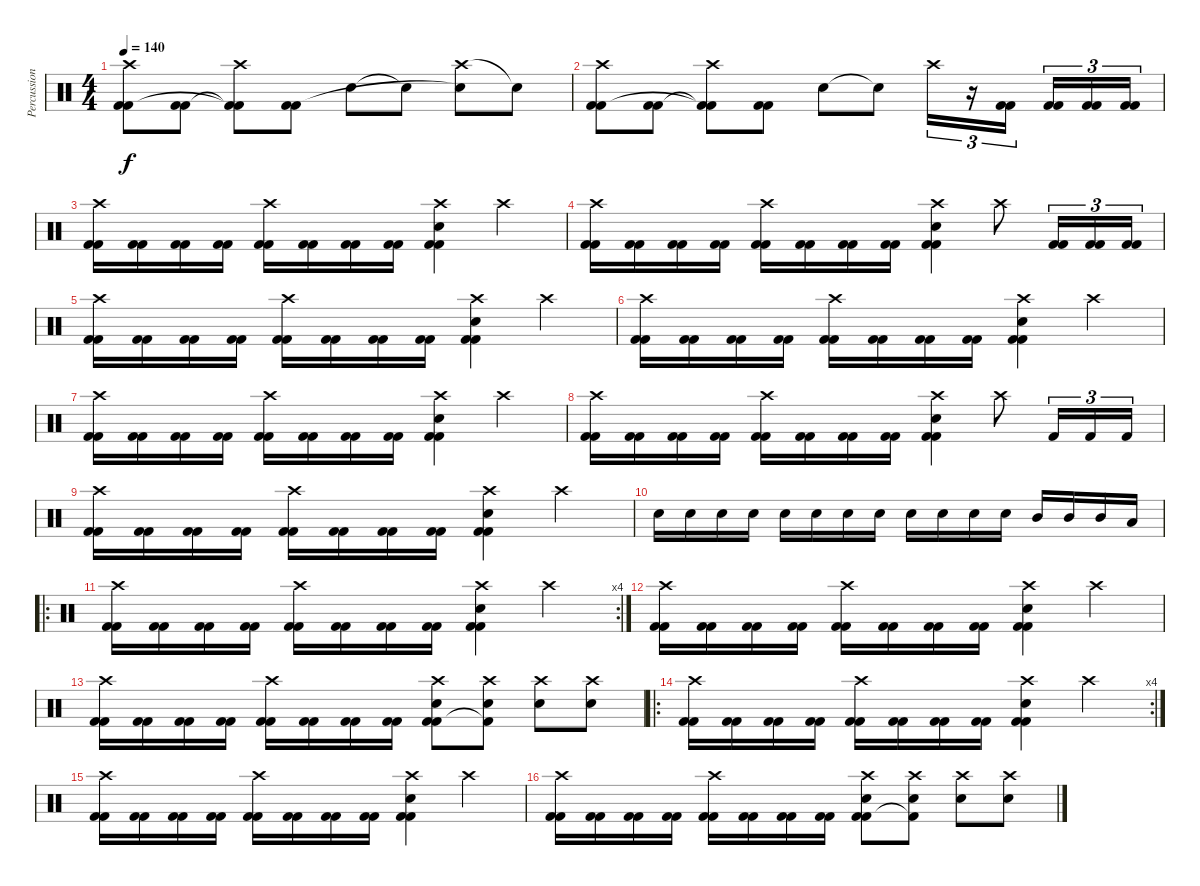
\track ("Percussion" "Percussion") {instrument percussion}
\staff {score}
\articulation defaults
\ts (4 4)
\tempo 140
\clef neutral
\ks c
("Crash high (hit)" "Kick (hit) 2" "Kick (hit) 2").8{dy f} ("Kick (hit) 2" "Kick (hit) 2").8 ("Crash high (hit)" "Kick (hit) 2"{t} "Kick (hit) 2"{t}).8 ("Kick (hit) 2" "Kick (hit) 2").8 "Electric Snare (hit)".8 "Snare (hit)"{t}.8 ("Crash high (hit)" "Snare (hit)"{t}).8 "Snare (hit)"{t}.8 |
("Crash high (hit)" "Kick (hit) 2" "Kick (hit) 2").8 ("Kick (hit) 2" "Kick (hit) 2").8 ("Crash high (hit)" "Kick (hit) 2"{t} "Kick (hit) 2"{t}).8 ("Kick (hit) 2" "Kick (hit) 2").8 "Electric Snare (hit)".8 "Snare (hit)"{t}.8 "Crash high (hit)".16{tu (3 2)} r.16{tu (3 2)} ("Kick (hit) 2" "Kick (hit) 2").16{tu (3 2)} ("Kick (hit) 2" "Kick (hit) 2").16{tu (3 2)} ("Kick (hit) 2" "Kick (hit) 2").16{tu (3 2)} ("Kick (hit) 2" "Kick (hit) 2").16{tu (3 2)} |
("Crash high (hit)" "Kick (hit) 2" "Kick (hit) 2").16 ("Kick (hit) 2" "Kick (hit) 2").16 ("Kick (hit) 2" "Kick (hit) 2").16 ("Kick (hit) 2" "Kick (hit) 2").16 ("Crash high (hit)" "Kick (hit) 2" "Kick (hit) 2").16 ("Kick (hit) 2" "Kick (hit) 2").16 ("Kick (hit) 2" "Kick (hit) 2").16 ("Kick (hit) 2" "Kick (hit) 2").16 ("Crash high (hit)" "Electric Snare (hit)" "Kick (hit) 2" "Kick (hit) 2").4 "Crash high (hit)".4 |
("Crash high (hit)" "Kick (hit) 2" "Kick (hit) 2").16 ("Kick (hit) 2" "Kick (hit) 2").16 ("Kick (hit) 2" "Kick (hit) 2").16 ("Kick (hit) 2" "Kick (hit) 2").16 ("Crash high (hit)" "Kick (hit) 2" "Kick (hit) 2").16 ("Kick (hit) 2" "Kick (hit) 2").16 ("Kick (hit) 2" "Kick (hit) 2").16 ("Kick (hit) 2" "Kick (hit) 2").16 ("Crash high (hit)" "Electric Snare (hit)" "Kick (hit) 2" "Kick (hit) 2").4 "Crash high (hit)".8 ("Kick (hit) 2" "Kick (hit) 2").16{tu (3 2)} ("Kick (hit) 2" "Kick (hit) 2").16{tu (3 2)} ("Kick (hit) 2" "Kick (hit) 2").16{tu (3 2)} |
("Crash high (hit)" "Kick (hit) 2" "Kick (hit) 2").16 ("Kick (hit) 2" "Kick (hit) 2").16 ("Kick (hit) 2" "Kick (hit) 2").16 ("Kick (hit) 2" "Kick (hit) 2").16 ("Crash high (hit)" "Kick (hit) 2" "Kick (hit) 2").16 ("Kick (hit) 2" "Kick (hit) 2").16 ("Kick (hit) 2" "Kick (hit) 2").16 ("Kick (hit) 2" "Kick (hit) 2").16 ("Crash high (hit)" "Electric Snare (hit)" "Kick (hit) 2" "Kick (hit) 2").4 "Crash high (hit)".4 |
("Crash high (hit)" "Kick (hit) 2" "Kick (hit) 2").16 ("Kick (hit) 2" "Kick (hit) 2").16 ("Kick (hit) 2" "Kick (hit) 2").16 ("Kick (hit) 2" "Kick (hit) 2").16 ("Crash high (hit)" "Kick (hit) 2" "Kick (hit) 2").16 ("Kick (hit) 2" "Kick (hit) 2").16 ("Kick (hit) 2" "Kick (hit) 2").16 ("Kick (hit) 2" "Kick (hit) 2").16 ("Crash high (hit)" "Electric Snare (hit)" "Kick (hit) 2" "Kick (hit) 2").4 "Crash high (hit)".4 |
("Crash high (hit)" "Kick (hit) 2" "Kick (hit) 2").16 ("Kick (hit) 2" "Kick (hit) 2").16 ("Kick (hit) 2" "Kick (hit) 2").16 ("Kick (hit) 2" "Kick (hit) 2").16 ("Crash high (hit)" "Kick (hit) 2" "Kick (hit) 2").16 ("Kick (hit) 2" "Kick (hit) 2").16 ("Kick (hit) 2" "Kick (hit) 2").16 ("Kick (hit) 2" "Kick (hit) 2").16 ("Crash high (hit)" "Electric Snare (hit)" "Kick (hit) 2" "Kick (hit) 2").4 "Crash high (hit)".4 |
("Crash high (hit)" "Kick (hit) 2" "Kick (hit) 2").16 ("Kick (hit) 2" "Kick (hit) 2").16 ("Kick (hit) 2" "Kick (hit) 2").16 ("Kick (hit) 2" "Kick (hit) 2").16 ("Crash high (hit)" "Kick (hit) 2" "Kick (hit) 2").16 ("Kick (hit) 2" "Kick (hit) 2").16 ("Kick (hit) 2" "Kick (hit) 2").16 ("Kick (hit) 2" "Kick (hit) 2").16 ("Crash high (hit)" "Electric Snare (hit)" "Kick (hit) 2" "Kick (hit) 2").4 "Crash high (hit)".8 "Kick (hit) 2".16{tu (3 2)} "Kick (hit) 2".16{tu (3 2)} "Kick (hit) 2".16{tu (3 2)} |
("Crash high (hit)" "Kick (hit) 2" "Kick (hit) 2").16 ("Kick (hit) 2" "Kick (hit) 2").16 ("Kick (hit) 2" "Kick (hit) 2").16 ("Kick (hit) 2" "Kick (hit) 2").16 ("Crash high (hit)" "Kick (hit) 2" "Kick (hit) 2").16 ("Kick (hit) 2" "Kick (hit) 2").16 ("Kick (hit) 2" "Kick (hit) 2").16 ("Kick (hit) 2" "Kick (hit) 2").16 ("Crash high (hit)" "Electric Snare (hit)" "Kick (hit) 2" "Kick (hit) 2").4 "Crash high (hit)".4 |
"Electric Snare (hit)".16 "Electric Snare (hit)".16 "Electric Snare (hit)".16 "Electric Snare (hit)".16 "Electric Snare (hit)".16 "Electric Snare (hit)".16 "Electric Snare (hit)".16 "Electric Snare (hit)".16 "Electric Snare (hit)".16 "Electric Snare (hit)".16 "Electric Snare (hit)".16 "Electric Snare (hit)".16 "Mid Tom (hit)".16 "Mid Tom (hit)".16 "Mid Tom (hit)".16 "Low Tom (hit)".16 |
\ro
\rc 4
("Crash high (hit)" "Kick (hit) 2" "Kick (hit) 2").16 ("Kick (hit) 2" "Kick (hit) 2").16 ("Kick (hit) 2" "Kick (hit) 2").16 ("Kick (hit) 2" "Kick (hit) 2").16 ("Crash high (hit)" "Kick (hit) 2" "Kick (hit) 2").16 ("Kick (hit) 2" "Kick (hit) 2").16 ("Kick (hit) 2" "Kick (hit) 2").16 ("Kick (hit) 2" "Kick (hit) 2").16 ("Crash high (hit)" "Electric Snare (hit)" "Kick (hit) 2" "Kick (hit) 2").4 "Crash high (hit)".4 |
("Crash high (hit)" "Kick (hit) 2" "Kick (hit) 2").16 ("Kick (hit) 2" "Kick (hit) 2").16 ("Kick (hit) 2" "Kick (hit) 2").16 ("Kick (hit) 2" "Kick (hit) 2").16 ("Crash high (hit)" "Kick (hit) 2" "Kick (hit) 2").16 ("Kick (hit) 2" "Kick (hit) 2").16 ("Kick (hit) 2" "Kick (hit) 2").16 ("Kick (hit) 2" "Kick (hit) 2").16 ("Crash high (hit)" "Electric Snare (hit)" "Kick (hit) 2" "Kick (hit) 2").4 "Crash high (hit)".4 |
("Crash high (hit)" "Kick (hit) 2" "Kick (hit) 2").16 ("Kick (hit) 2" "Kick (hit) 2").16 ("Kick (hit) 2" "Kick (hit) 2").16 ("Kick (hit) 2" "Kick (hit) 2").16 ("Crash high (hit)" "Kick (hit) 2" "Kick (hit) 2").16 ("Kick (hit) 2" "Kick (hit) 2").16 ("Kick (hit) 2" "Kick (hit) 2").16 ("Kick (hit) 2" "Kick (hit) 2").16 ("Crash high (hit)" "Electric Snare (hit)" "Kick (hit) 2" "Kick (hit) 2").8 ("Crash high (hit)" "Electric Snare (hit)" "Kick (hit) 2"{t}).8 ("Crash high (hit)" "Electric Snare (hit)").8 ("Crash high (hit)" "Electric Snare (hit)").8 |
\ro
\rc 4
("Crash high (hit)" "Kick (hit) 2" "Kick (hit) 2").16 ("Kick (hit) 2" "Kick (hit) 2").16 ("Kick (hit) 2" "Kick (hit) 2").16 ("Kick (hit) 2" "Kick (hit) 2").16 ("Crash high (hit)" "Kick (hit) 2" "Kick (hit) 2").16 ("Kick (hit) 2" "Kick (hit) 2").16 ("Kick (hit) 2" "Kick (hit) 2").16 ("Kick (hit) 2" "Kick (hit) 2").16 ("Crash high (hit)" "Electric Snare (hit)" "Kick (hit) 2" "Kick (hit) 2").4 "Crash high (hit)".4 |
("Crash high (hit)" "Kick (hit) 2" "Kick (hit) 2").16 ("Kick (hit) 2" "Kick (hit) 2").16 ("Kick (hit) 2" "Kick (hit) 2").16 ("Kick (hit) 2" "Kick (hit) 2").16 ("Crash high (hit)" "Kick (hit) 2" "Kick (hit) 2").16 ("Kick (hit) 2" "Kick (hit) 2").16 ("Kick (hit) 2" "Kick (hit) 2").16 ("Kick (hit) 2" "Kick (hit) 2").16 ("Crash high (hit)" "Electric Snare (hit)" "Kick (hit) 2" "Kick (hit) 2").4 "Crash high (hit)".4 |
("Crash high (hit)" "Kick (hit) 2" "Kick (hit) 2").16 ("Kick (hit) 2" "Kick (hit) 2").16 ("Kick (hit) 2" "Kick (hit) 2").16 ("Kick (hit) 2" "Kick (hit) 2").16 ("Crash high (hit)" "Kick (hit) 2" "Kick (hit) 2").16 ("Kick (hit) 2" "Kick (hit) 2").16 ("Kick (hit) 2" "Kick (hit) 2").16 ("Kick (hit) 2" "Kick (hit) 2").16 ("Crash high (hit)" "Electric Snare (hit)" "Kick (hit) 2" "Kick (hit) 2").8 ("Crash high (hit)" "Electric Snare (hit)" "Kick (hit) 2"{t}).8 ("Crash high (hit)" "Electric Snare (hit)").8 ("Crash high (hit)" "Electric Snare (hit)").8
